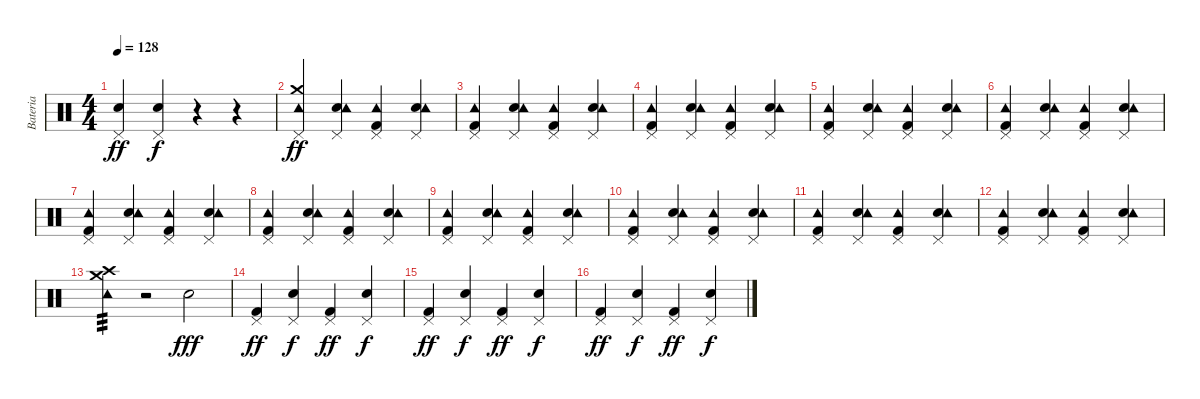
\track ("Bateria" "Bateria") {instrument percussion}
\staff {score}
\articulation defaults
\ts (4 4)
\tempo 128
\clef neutral
\ks c
("Pedal Hi-Hat (hit)" "Electric Snare (hit)").4{dy ff} ("Pedal Hi-Hat (hit)" "Electric Snare (hit)").4{dy f} r.4 r.4 |
("Pedal Hi-Hat (hit)" "Crash medium (hit)" "Tambourine (hit)").4{dy ff} ("Pedal Hi-Hat (hit)" "Electric Snare (hit)" "Tambourine (hit)").4 ("Pedal Hi-Hat (hit)" "Kick (hit) 2" "Tambourine (hit)").4 ("Pedal Hi-Hat (hit)" "Electric Snare (hit)" "Tambourine (hit)").4 |
("Pedal Hi-Hat (hit)" "Kick (hit) 2" "Tambourine (hit)").4 ("Pedal Hi-Hat (hit)" "Electric Snare (hit)" "Tambourine (hit)").4 ("Pedal Hi-Hat (hit)" "Kick (hit) 2" "Tambourine (hit)").4 ("Pedal Hi-Hat (hit)" "Electric Snare (hit)" "Tambourine (hit)").4 |
("Pedal Hi-Hat (hit)" "Kick (hit) 2" "Tambourine (hit)").4 ("Pedal Hi-Hat (hit)" "Electric Snare (hit)" "Tambourine (hit)").4 ("Pedal Hi-Hat (hit)" "Kick (hit) 2" "Tambourine (hit)").4 ("Pedal Hi-Hat (hit)" "Electric Snare (hit)" "Tambourine (hit)").4 |
("Pedal Hi-Hat (hit)" "Kick (hit) 2" "Tambourine (hit)").4 ("Pedal Hi-Hat (hit)" "Electric Snare (hit)" "Tambourine (hit)").4 ("Pedal Hi-Hat (hit)" "Kick (hit) 2" "Tambourine (hit)").4 ("Pedal Hi-Hat (hit)" "Electric Snare (hit)" "Tambourine (hit)").4 |
("Pedal Hi-Hat (hit)" "Kick (hit) 2" "Tambourine (hit)").4 ("Pedal Hi-Hat (hit)" "Electric Snare (hit)" "Tambourine (hit)").4 ("Pedal Hi-Hat (hit)" "Kick (hit) 2" "Tambourine (hit)").4 ("Pedal Hi-Hat (hit)" "Electric Snare (hit)" "Tambourine (hit)").4 |
("Pedal Hi-Hat (hit)" "Kick (hit) 2" "Tambourine (hit)").4 ("Pedal Hi-Hat (hit)" "Electric Snare (hit)" "Tambourine (hit)").4 ("Pedal Hi-Hat (hit)" "Kick (hit) 2" "Tambourine (hit)").4 ("Pedal Hi-Hat (hit)" "Electric Snare (hit)" "Tambourine (hit)").4 |
("Pedal Hi-Hat (hit)" "Kick (hit) 2" "Tambourine (hit)").4 ("Pedal Hi-Hat (hit)" "Electric Snare (hit)" "Tambourine (hit)").4 ("Pedal Hi-Hat (hit)" "Kick (hit) 2" "Tambourine (hit)").4 ("Pedal Hi-Hat (hit)" "Electric Snare (hit)" "Tambourine (hit)").4 |
("Pedal Hi-Hat (hit)" "Kick (hit) 2" "Tambourine (hit)").4 ("Pedal Hi-Hat (hit)" "Electric Snare (hit)" "Tambourine (hit)").4 ("Pedal Hi-Hat (hit)" "Kick (hit) 2" "Tambourine (hit)").4 ("Pedal Hi-Hat (hit)" "Electric Snare (hit)" "Tambourine (hit)").4 |
("Pedal Hi-Hat (hit)" "Kick (hit) 2" "Tambourine (hit)").4 ("Pedal Hi-Hat (hit)" "Electric Snare (hit)" "Tambourine (hit)").4 ("Pedal Hi-Hat (hit)" "Kick (hit) 2" "Tambourine (hit)").4 ("Pedal Hi-Hat (hit)" "Electric Snare (hit)" "Tambourine (hit)").4 |
("Pedal Hi-Hat (hit)" "Kick (hit) 2" "Tambourine (hit)").4 ("Pedal Hi-Hat (hit)" "Electric Snare (hit)" "Tambourine (hit)").4 ("Pedal Hi-Hat (hit)" "Kick (hit) 2" "Tambourine (hit)").4 ("Pedal Hi-Hat (hit)" "Electric Snare (hit)" "Tambourine (hit)").4 |
("Pedal Hi-Hat (hit)" "Kick (hit) 2" "Tambourine (hit)").4 ("Pedal Hi-Hat (hit)" "Electric Snare (hit)" "Tambourine (hit)").4 ("Pedal Hi-Hat (hit)" "Kick (hit) 2" "Tambourine (hit)").4 ("Pedal Hi-Hat (hit)" "Electric Snare (hit)" "Tambourine (hit)").4 |
("Crash medium (hit)" "Crash high (hit)" "Tambourine (hit)").4{tp 3} r.2 "Electric Snare (hit)".2{dy fff} |
("Pedal Hi-Hat (hit)" "Kick (hit) 2").4{dy ff} ("Pedal Hi-Hat (hit)" "Electric Snare (hit)").4{dy f} ("Pedal Hi-Hat (hit)" "Kick (hit) 2").4{dy ff} ("Pedal Hi-Hat (hit)" "Electric Snare (hit)").4{dy f} |
("Pedal Hi-Hat (hit)" "Kick (hit) 2").4{dy ff} ("Pedal Hi-Hat (hit)" "Electric Snare (hit)").4{dy f} ("Pedal Hi-Hat (hit)" "Kick (hit) 2").4{dy ff} ("Pedal Hi-Hat (hit)" "Electric Snare (hit)").4{dy f} |
("Pedal Hi-Hat (hit)" "Kick (hit) 2").4{dy ff} ("Pedal Hi-Hat (hit)" "Electric Snare (hit)").4{dy f} ("Pedal Hi-Hat (hit)" "Kick (hit) 2").4{dy ff} ("Pedal Hi-Hat (hit)" "Electric Snare (hit)").4{dy f}
